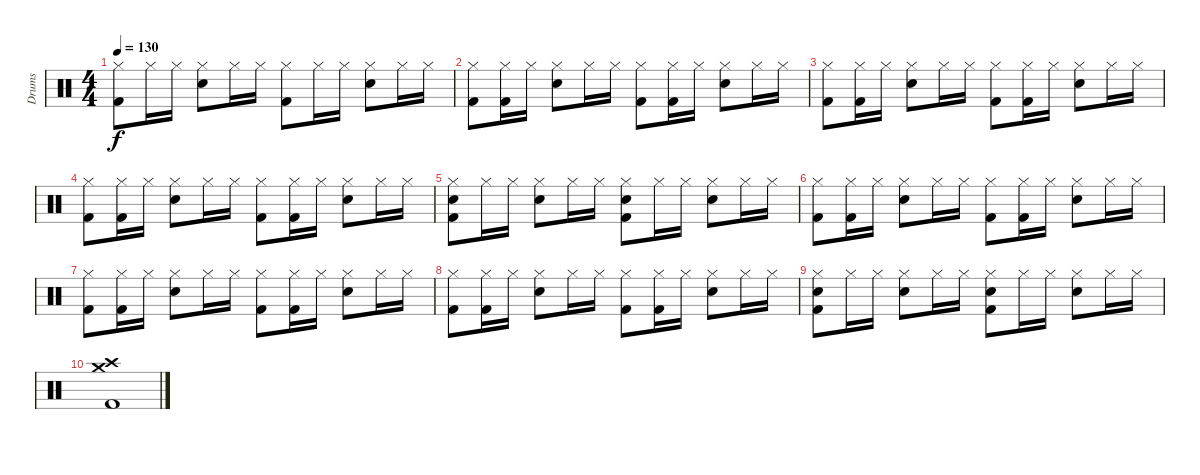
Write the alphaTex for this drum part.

\track ("Drums" "Drums") {instrument percussion}
\staff {score}
\articulation defaults
\ts (4 4)
\tempo 130
\clef neutral
\ks c
("Hi-Hat (closed)" "Kick (hit) 2").8{dy f} "Hi-Hat (closed)".16 "Hi-Hat (closed)".16 ("Hi-Hat (closed)" "Electric Snare (hit)").8 "Hi-Hat (closed)".16 "Hi-Hat (closed)".16 ("Hi-Hat (closed)" "Kick (hit) 2").8 "Hi-Hat (closed)".16 "Hi-Hat (closed)".16 ("Hi-Hat (closed)" "Electric Snare (hit)").8 "Hi-Hat (closed)".16 "Hi-Hat (closed)".16 |
("Hi-Hat (closed)" "Kick (hit) 2").8 ("Hi-Hat (closed)" "Kick (hit) 2").16 "Hi-Hat (closed)".16 ("Hi-Hat (closed)" "Electric Snare (hit)").8 "Hi-Hat (closed)".16 "Hi-Hat (closed)".16 ("Hi-Hat (closed)" "Kick (hit) 2").8 ("Hi-Hat (closed)" "Kick (hit) 2").16 "Hi-Hat (closed)".16 ("Hi-Hat (closed)" "Electric Snare (hit)").8 "Hi-Hat (closed)".16 "Hi-Hat (closed)".16 |
("Hi-Hat (closed)" "Kick (hit) 2").8 ("Hi-Hat (closed)" "Kick (hit) 2").16 "Hi-Hat (closed)".16 ("Hi-Hat (closed)" "Electric Snare (hit)").8 "Hi-Hat (closed)".16 "Hi-Hat (closed)".16 ("Hi-Hat (closed)" "Kick (hit) 2").8 ("Hi-Hat (closed)" "Kick (hit) 2").16 "Hi-Hat (closed)".16 ("Hi-Hat (closed)" "Electric Snare (hit)").8 "Hi-Hat (closed)".16 "Hi-Hat (closed)".16 |
("Hi-Hat (closed)" "Kick (hit) 2").8 ("Hi-Hat (closed)" "Kick (hit) 2").16 "Hi-Hat (closed)".16 ("Hi-Hat (closed)" "Electric Snare (hit)").8 "Hi-Hat (closed)".16 "Hi-Hat (closed)".16 ("Hi-Hat (closed)" "Kick (hit) 2").8 ("Hi-Hat (closed)" "Kick (hit) 2").16 "Hi-Hat (closed)".16 ("Hi-Hat (closed)" "Electric Snare (hit)").8 "Hi-Hat (closed)".16 "Hi-Hat (closed)".16 |
("Hi-Hat (closed)" "Electric Snare (hit)" "Kick (hit) 2").8 "Hi-Hat (closed)".16 "Hi-Hat (closed)".16 ("Hi-Hat (closed)" "Electric Snare (hit)").8 "Hi-Hat (closed)".16 "Hi-Hat (closed)".16 ("Hi-Hat (closed)" "Electric Snare (hit)" "Kick (hit) 2").8 "Hi-Hat (closed)".16 "Hi-Hat (closed)".16 ("Hi-Hat (closed)" "Electric Snare (hit)").8 "Hi-Hat (closed)".16 "Hi-Hat (closed)".16 |
("Hi-Hat (closed)" "Kick (hit) 2").8 ("Hi-Hat (closed)" "Kick (hit) 2").16 "Hi-Hat (closed)".16 ("Hi-Hat (closed)" "Electric Snare (hit)").8 "Hi-Hat (closed)".16 "Hi-Hat (closed)".16 ("Hi-Hat (closed)" "Kick (hit) 2").8 ("Hi-Hat (closed)" "Kick (hit) 2").16 "Hi-Hat (closed)".16 ("Hi-Hat (closed)" "Electric Snare (hit)").8 "Hi-Hat (closed)".16 "Hi-Hat (closed)".16 |
("Hi-Hat (closed)" "Kick (hit) 2").8 ("Hi-Hat (closed)" "Kick (hit) 2").16 "Hi-Hat (closed)".16 ("Hi-Hat (closed)" "Electric Snare (hit)").8 "Hi-Hat (closed)".16 "Hi-Hat (closed)".16 ("Hi-Hat (closed)" "Kick (hit) 2").8 ("Hi-Hat (closed)" "Kick (hit) 2").16 "Hi-Hat (closed)".16 ("Hi-Hat (closed)" "Electric Snare (hit)").8 "Hi-Hat (closed)".16 "Hi-Hat (closed)".16 |
("Hi-Hat (closed)" "Kick (hit) 2").8 ("Hi-Hat (closed)" "Kick (hit) 2").16 "Hi-Hat (closed)".16 ("Hi-Hat (closed)" "Electric Snare (hit)").8 "Hi-Hat (closed)".16 "Hi-Hat (closed)".16 ("Hi-Hat (closed)" "Kick (hit) 2").8 ("Hi-Hat (closed)" "Kick (hit) 2").16 "Hi-Hat (closed)".16 ("Hi-Hat (closed)" "Electric Snare (hit)").8 "Hi-Hat (closed)".16 "Hi-Hat (closed)".16 |
("Hi-Hat (closed)" "Electric Snare (hit)" "Kick (hit) 2").8 "Hi-Hat (closed)".16 "Hi-Hat (closed)".16 ("Hi-Hat (closed)" "Electric Snare (hit)").8 "Hi-Hat (closed)".16 "Hi-Hat (closed)".16 ("Hi-Hat (closed)" "Electric Snare (hit)" "Kick (hit) 2").8 "Hi-Hat (closed)".16 "Hi-Hat (closed)".16 ("Hi-Hat (closed)" "Electric Snare (hit)").8 "Hi-Hat (closed)".16 "Hi-Hat (closed)".16 |
("Crash high (hit)" "Crash medium (hit)" "Kick (hit) 2").1
